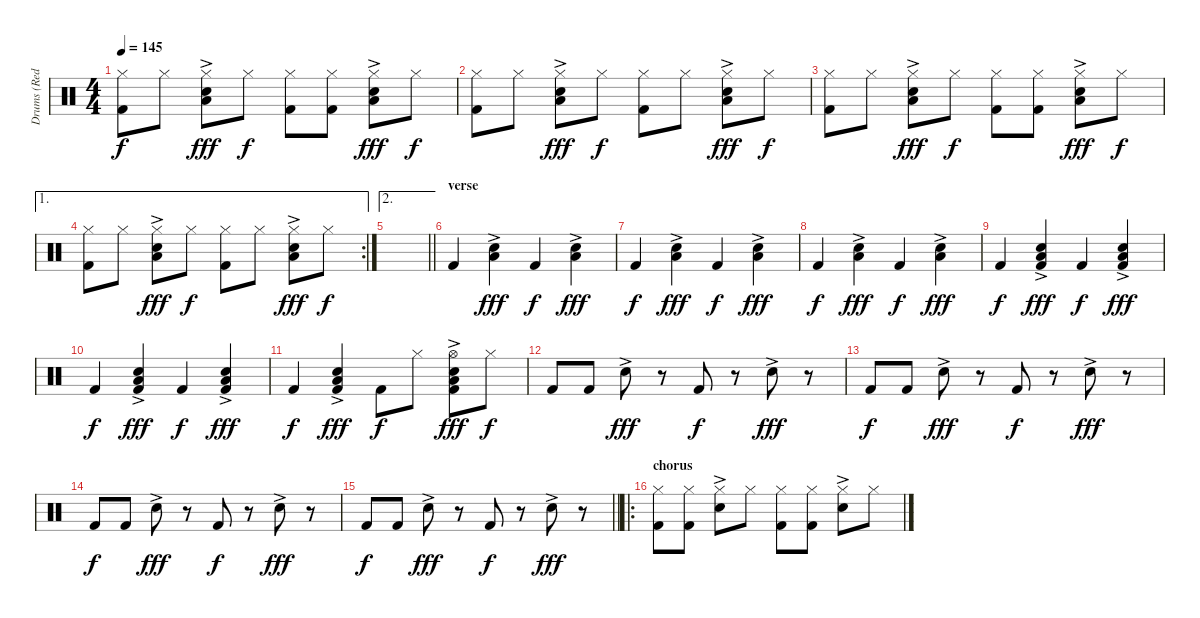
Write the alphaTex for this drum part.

\track ("Drums (Red)" "Drums (Red") {instrument percussion}
\staff {score}
\articulation defaults
\ts (4 4)
\tempo 145
\clef neutral
\ks c
("Hi-Hat (closed)" "Kick (hit) 2").8{dy f} "Hi-Hat (closed)".8 ("Hi-Hat (closed)" "Low Floor Tom (hit)" "Electric Snare (hit)"{ac}).8{dy fff} "Hi-Hat (closed)".8{dy f} ("Hi-Hat (closed)" "Kick (hit) 2").8 ("Hi-Hat (closed)" "Kick (hit) 2").8 ("Hi-Hat (closed)" "Low Floor Tom (hit)" "Electric Snare (hit)"{ac}).8{dy fff} "Hi-Hat (closed)".8{dy f} |
("Hi-Hat (closed)" "Kick (hit) 2").8 "Hi-Hat (closed)".8 ("Hi-Hat (closed)" "Low Floor Tom (hit)" "Electric Snare (hit)"{ac}).8{dy fff} "Hi-Hat (closed)".8{dy f} ("Hi-Hat (closed)" "Kick (hit) 2").8 "Hi-Hat (closed)".8 ("Hi-Hat (closed)" "Low Floor Tom (hit)" "Electric Snare (hit)"{ac}).8{dy fff} "Hi-Hat (closed)".8{dy f} |
("Hi-Hat (closed)" "Kick (hit) 2").8 "Hi-Hat (closed)".8 ("Hi-Hat (closed)" "Low Floor Tom (hit)" "Electric Snare (hit)"{ac}).8{dy fff} "Hi-Hat (closed)".8{dy f} ("Hi-Hat (closed)" "Kick (hit) 2").8 ("Hi-Hat (closed)" "Kick (hit) 2").8 ("Hi-Hat (closed)" "Low Floor Tom (hit)" "Electric Snare (hit)"{ac}).8{dy fff} "Hi-Hat (closed)".8{dy f} |
\ae 1
\rc 2
("Hi-Hat (closed)" "Kick (hit) 2").8 "Hi-Hat (closed)".8 ("Hi-Hat (closed)" "Low Floor Tom (hit)" "Electric Snare (hit)"{ac}).8{dy fff} "Hi-Hat (closed)".8{dy f} ("Hi-Hat (closed)" "Kick (hit) 2").8 "Hi-Hat (closed)".8 ("Hi-Hat (closed)" "Low Floor Tom (hit)" "Electric Snare (hit)"{ac}).8{dy fff} "Hi-Hat (closed)".8{dy f} |
\ae 2
\barLineRight lightlight
|
\section ("" "verse")
"Kick (hit) 2".4 ("Low Floor Tom (hit)" "Electric Snare (hit)"{ac}).4{dy fff} "Kick (hit) 2".4{dy f} ("Low Floor Tom (hit)" "Electric Snare (hit)"{ac}).4{dy fff} |
"Kick (hit) 2".4{dy f} ("Low Floor Tom (hit)" "Electric Snare (hit)"{ac}).4{dy fff} "Kick (hit) 2".4{dy f} ("Low Floor Tom (hit)" "Electric Snare (hit)"{ac}).4{dy fff} |
"Kick (hit) 2".4{dy f} ("Low Floor Tom (hit)" "Electric Snare (hit)"{ac}).4{dy fff} "Kick (hit) 2".4{dy f} ("Low Floor Tom (hit)" "Electric Snare (hit)"{ac}).4{dy fff} |
"Kick (hit) 2".4{dy f} ("Low Floor Tom (hit)" "Electric Snare (hit)"{ac} "Kick (hit) 2").4{dy fff} "Kick (hit) 2".4{dy f} ("Low Floor Tom (hit)" "Electric Snare (hit)"{ac} "Kick (hit) 2").4{dy fff} |
"Kick (hit) 2".4{dy f} ("Low Floor Tom (hit)" "Electric Snare (hit)"{ac} "Kick (hit) 2").4{dy fff} "Kick (hit) 2".4{dy f} ("Low Floor Tom (hit)" "Electric Snare (hit)"{ac} "Kick (hit) 2").4{dy fff} |
"Kick (hit) 2".4{dy f} ("Low Floor Tom (hit)" "Electric Snare (hit)"{ac} "Kick (hit) 2").4{dy fff} "Kick (hit) 2".8{dy f} "Hi-Hat (closed)".8 ("Hi-Hat (open)" "Low Floor Tom (hit)" "Electric Snare (hit)"{ac} "Kick (hit) 2").8{dy fff} "Hi-Hat (closed)".8{dy f} |
"Kick (hit) 2".8 "Kick (hit) 2".8 "Electric Snare (hit)"{ac}.8{dy fff} r.8 "Kick (hit) 2".8{dy f} r.8 "Electric Snare (hit)"{ac}.8{dy fff} r.8 |
"Kick (hit) 2".8{dy f} "Kick (hit) 2".8 "Electric Snare (hit)"{ac}.8{dy fff} r.8 "Kick (hit) 2".8{dy f} r.8 "Electric Snare (hit)"{ac}.8{dy fff} r.8 |
"Kick (hit) 2".8{dy f} "Kick (hit) 2".8 "Electric Snare (hit)"{ac}.8{dy fff} r.8 "Kick (hit) 2".8{dy f} r.8 "Electric Snare (hit)"{ac}.8{dy fff} r.8 |
\barLineRight lightlight "Kick (hit) 2".8{dy f} "Kick (hit) 2".8 "Electric Snare (hit)"{ac}.8{dy fff}
r.8 "Kick (hit) 2".8{dy f} r.8 "Electric Snare (hit)"{ac}.8{dy fff} r.8 |
\ro
\section ("" "chorus")
("Hi-Hat (closed)" "Kick (hit) 2").8{volume 16} ("Hi-Hat (closed)" "Kick (hit) 2").8 ("Hi-Hat (closed)" "Electric Snare (hit)"{ac}).8 "Hi-Hat (closed)".8 ("Hi-Hat (closed)" "Kick (hit) 2").8 ("Hi-Hat (closed)" "Kick (hit) 2").8 ("Hi-Hat (closed)" "Electric Snare (hit)"{ac}).8 "Hi-Hat (closed)".8
